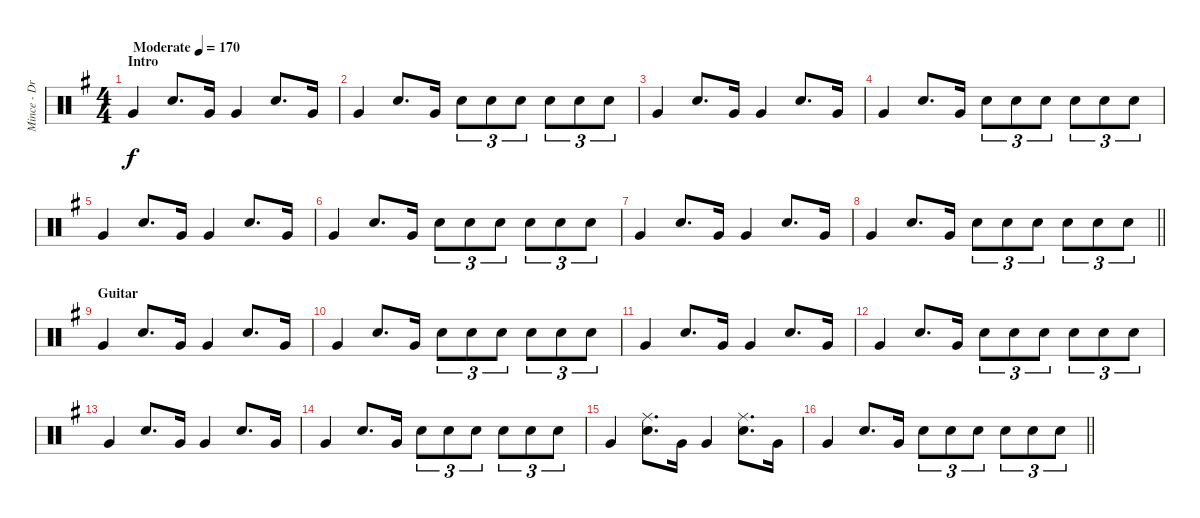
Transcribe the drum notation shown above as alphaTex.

\track ("Mince - Drums" "Mince - Dr") {instrument percussion}
\staff {score}
\articulation defaults
\ts (4 4)
\section ("" "Intro")
\tempo (170 "Moderate")
\clef neutral
\ks g "Very Low Tom (hit)".4{dy f} "Snare (hit) 2".8{d} "Very Low Tom (hit)".16 "Very Low Tom (hit)".4 "Snare (hit) 2".8{d} "Very Low Tom (hit)".16
|
"Very Low Tom (hit)".4 "Snare (hit) 2".8{d} "Very Low Tom (hit)".16 "Snare (hit) 2".8{tu (3 2)} "Snare (hit) 2".8{tu (3 2)} "Snare (hit) 2".8{tu (3 2)} "Snare (hit) 2".8{tu (3 2)} "Snare (hit) 2".8{tu (3 2)} "Snare (hit) 2".8{tu (3 2)} |
"Very Low Tom (hit)".4 "Snare (hit) 2".8{d} "Very Low Tom (hit)".16 "Very Low Tom (hit)".4 "Snare (hit) 2".8{d} "Very Low Tom (hit)".16 |
"Very Low Tom (hit)".4 "Snare (hit) 2".8{d} "Very Low Tom (hit)".16 "Snare (hit) 2".8{tu (3 2)} "Snare (hit) 2".8{tu (3 2)} "Snare (hit) 2".8{tu (3 2)} "Snare (hit) 2".8{tu (3 2)} "Snare (hit) 2".8{tu (3 2)} "Snare (hit) 2".8{tu (3 2)} |
"Very Low Tom (hit)".4 "Snare (hit) 2".8{d} "Very Low Tom (hit)".16 "Very Low Tom (hit)".4 "Snare (hit) 2".8{d} "Very Low Tom (hit)".16 |
"Very Low Tom (hit)".4 "Snare (hit) 2".8{d} "Very Low Tom (hit)".16 "Snare (hit) 2".8{tu (3 2)} "Snare (hit) 2".8{tu (3 2)} "Snare (hit) 2".8{tu (3 2)} "Snare (hit) 2".8{tu (3 2)} "Snare (hit) 2".8{tu (3 2)} "Snare (hit) 2".8{tu (3 2)} |
"Very Low Tom (hit)".4 "Snare (hit) 2".8{d} "Very Low Tom (hit)".16 "Very Low Tom (hit)".4 "Snare (hit) 2".8{d} "Very Low Tom (hit)".16 |
\barLineRight lightlight "Very Low Tom (hit)".4 "Snare (hit) 2".8{d} "Very Low Tom (hit)".16 "Snare (hit) 2".8{tu (3 2)} "Snare (hit) 2".8{tu (3 2)} "Snare (hit) 2".8{tu (3 2)} "Snare (hit) 2".8{tu (3 2)} "Snare (hit) 2".8{tu (3 2)} "Snare (hit) 2".8{tu (3 2)}
|
\section ("" "Guitar")
"Very Low Tom (hit)".4 "Snare (hit) 2".8{d} "Very Low Tom (hit)".16 "Very Low Tom (hit)".4 "Snare (hit) 2".8{d} "Very Low Tom (hit)".16 |
"Very Low Tom (hit)".4 "Snare (hit) 2".8{d} "Very Low Tom (hit)".16 "Snare (hit) 2".8{tu (3 2)} "Snare (hit) 2".8{tu (3 2)} "Snare (hit) 2".8{tu (3 2)} "Snare (hit) 2".8{tu (3 2)} "Snare (hit) 2".8{tu (3 2)} "Snare (hit) 2".8{tu (3 2)} |
"Very Low Tom (hit)".4 "Snare (hit) 2".8{d} "Very Low Tom (hit)".16 "Very Low Tom (hit)".4 "Snare (hit) 2".8{d} "Very Low Tom (hit)".16 |
"Very Low Tom (hit)".4 "Snare (hit) 2".8{d} "Very Low Tom (hit)".16 "Snare (hit) 2".8{tu (3 2)} "Snare (hit) 2".8{tu (3 2)} "Snare (hit) 2".8{tu (3 2)} "Snare (hit) 2".8{tu (3 2)} "Snare (hit) 2".8{tu (3 2)} "Snare (hit) 2".8{tu (3 2)} |
"Very Low Tom (hit)".4 "Snare (hit) 2".8{d} "Very Low Tom (hit)".16 "Very Low Tom (hit)".4 "Snare (hit) 2".8{d} "Very Low Tom (hit)".16 |
"Very Low Tom (hit)".4 "Snare (hit) 2".8{d} "Very Low Tom (hit)".16 "Snare (hit) 2".8{tu (3 2)} "Snare (hit) 2".8{tu (3 2)} "Snare (hit) 2".8{tu (3 2)} "Snare (hit) 2".8{tu (3 2)} "Snare (hit) 2".8{tu (3 2)} "Snare (hit) 2".8{tu (3 2)} |
"Very Low Tom (hit)".4 ("Ride (middle)" "Snare (hit) 2").8{d} "Very Low Tom (hit)".16 "Very Low Tom (hit)".4 ("Ride (middle)" "Snare (hit) 2").8{d} "Very Low Tom (hit)".16 |
\barLineRight lightlight "Very Low Tom (hit)".4 "Snare (hit) 2".8{d} "Very Low Tom (hit)".16 "Snare (hit) 2".8{tu (3 2)} "Snare (hit) 2".8{tu (3 2)} "Snare (hit) 2".8{tu (3 2)} "Snare (hit) 2".8{tu (3 2)} "Snare (hit) 2".8{tu (3 2)} "Snare (hit) 2".8{tu (3 2)}
